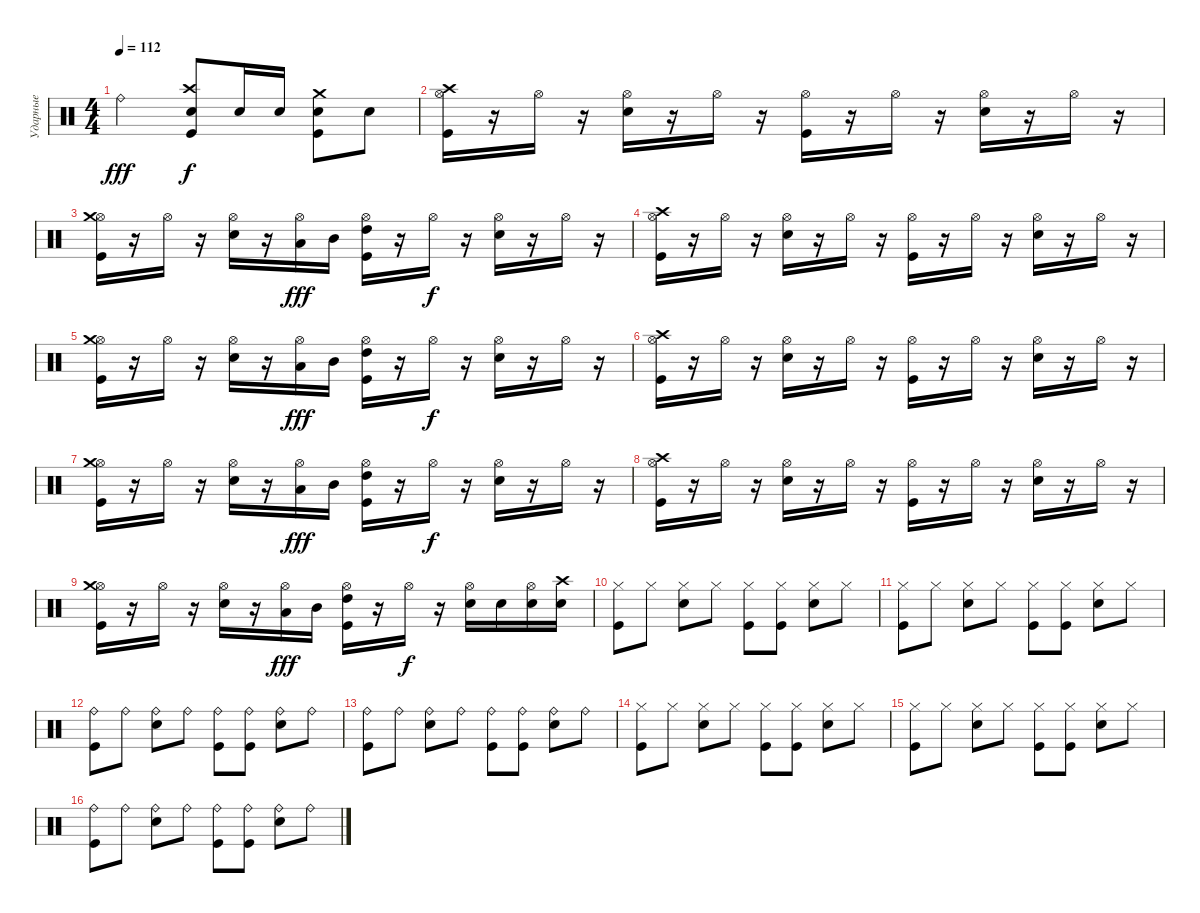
\track ("Ударные" "Ударные") {instrument percussion}
\staff {score}
\articulation defaults
\ts (4 4)
\tempo 112
\clef neutral
\ks c "Ride (bell)".2{dy fff}
("Snare (hit) 2" "Crash high (hit)" "Kick (hit)").8{dy f} "Snare (hit) 2".16 "Snare (hit) 2".16 ("Snare (hit) 2" "Crash medium (hit)" "Kick (hit)").8 "Snare (hit) 2".8 |
("Hi-Hat (open)" "Crash high (hit)" "Kick (hit)").16 r.16 "Hi-Hat (open)".16 r.16 ("Hi-Hat (open)" "Snare (hit) 2").16 r.16 "Hi-Hat (open)".16 r.16 ("Hi-Hat (open)" "Kick (hit)").16 r.16 "Hi-Hat (open)".16 r.16 ("Hi-Hat (open)" "Snare (hit) 2").16 r.16 "Hi-Hat (open)".16 r.16 |
("Hi-Hat (open)" "Crash medium (hit)" "Kick (hit)").16 r.16 "Hi-Hat (open)".16 r.16 ("Hi-Hat (open)" "Snare (hit) 2").16 r.16 ("Hi-Hat (open)" "Low Tom (hit)").16{dy fff} "Mid Tom (hit)".16 ("Hi-Hat (open)" "High Tom (hit)" "Kick (hit)").16 r.16 "Hi-Hat (open)".16{dy f} r.16 ("Hi-Hat (open)" "Snare (hit) 2").16 r.16 "Hi-Hat (open)".16 r.16 |
("Hi-Hat (open)" "Crash high (hit)" "Kick (hit)").16 r.16 "Hi-Hat (open)".16 r.16 ("Hi-Hat (open)" "Snare (hit) 2").16 r.16 "Hi-Hat (open)".16 r.16 ("Hi-Hat (open)" "Kick (hit)").16 r.16 "Hi-Hat (open)".16 r.16 ("Hi-Hat (open)" "Snare (hit) 2").16 r.16 "Hi-Hat (open)".16 r.16 |
("Hi-Hat (open)" "Crash medium (hit)" "Kick (hit)").16 r.16 "Hi-Hat (open)".16 r.16 ("Hi-Hat (open)" "Snare (hit) 2").16 r.16 ("Hi-Hat (open)" "Low Tom (hit)").16{dy fff} "Mid Tom (hit)".16 ("Hi-Hat (open)" "High Tom (hit)" "Kick (hit)").16 r.16 "Hi-Hat (open)".16{dy f} r.16 ("Hi-Hat (open)" "Snare (hit) 2").16 r.16 "Hi-Hat (open)".16 r.16 |
("Hi-Hat (open)" "Crash high (hit)" "Kick (hit)").16 r.16 "Hi-Hat (open)".16 r.16 ("Hi-Hat (open)" "Snare (hit) 2").16 r.16 "Hi-Hat (open)".16 r.16 ("Hi-Hat (open)" "Kick (hit)").16 r.16 "Hi-Hat (open)".16 r.16 ("Hi-Hat (open)" "Snare (hit) 2").16 r.16 "Hi-Hat (open)".16 r.16 |
("Hi-Hat (open)" "Crash medium (hit)" "Kick (hit)").16 r.16 "Hi-Hat (open)".16 r.16 ("Hi-Hat (open)" "Snare (hit) 2").16 r.16 ("Hi-Hat (open)" "Low Tom (hit)").16{dy fff} "Mid Tom (hit)".16 ("Hi-Hat (open)" "High Tom (hit)" "Kick (hit)").16 r.16 "Hi-Hat (open)".16{dy f} r.16 ("Hi-Hat (open)" "Snare (hit) 2").16 r.16 "Hi-Hat (open)".16 r.16 |
("Hi-Hat (open)" "Crash high (hit)" "Kick (hit)").16 r.16 "Hi-Hat (open)".16 r.16 ("Hi-Hat (open)" "Snare (hit) 2").16 r.16 "Hi-Hat (open)".16 r.16 ("Hi-Hat (open)" "Kick (hit)").16 r.16 "Hi-Hat (open)".16 r.16 ("Hi-Hat (open)" "Snare (hit) 2").16 r.16 "Hi-Hat (open)".16 r.16 |
("Hi-Hat (open)" "Crash medium (hit)" "Kick (hit)").16 r.16 "Hi-Hat (open)".16 r.16 ("Hi-Hat (open)" "Snare (hit) 2").16 r.16 ("Hi-Hat (open)" "Low Tom (hit)").16{dy fff} "Mid Tom (hit)".16 ("Hi-Hat (open)" "High Tom (hit)" "Kick (hit)").16 r.16 "Hi-Hat (open)".16{dy f} r.16 ("Hi-Hat (open)" "Snare (hit) 2").16 "Snare (hit) 2".16 ("Hi-Hat (open)" "Snare (hit) 2").16 ("Crash high (hit)" "Snare (hit) 2").16 |
("Hi-Hat (closed)" "Kick (hit)").8 "Hi-Hat (closed)".8 ("Hi-Hat (closed)" "Snare (hit) 2").8 "Hi-Hat (closed)".8 ("Hi-Hat (closed)" "Kick (hit)").8 ("Hi-Hat (closed)" "Kick (hit)").8 ("Hi-Hat (closed)" "Snare (hit) 2").8 "Hi-Hat (closed)".8 |
("Hi-Hat (closed)" "Kick (hit)").8 "Hi-Hat (closed)".8 ("Hi-Hat (closed)" "Snare (hit) 2").8 "Hi-Hat (closed)".8 ("Hi-Hat (closed)" "Kick (hit)").8 ("Hi-Hat (closed)" "Kick (hit)").8 ("Hi-Hat (closed)" "Snare (hit) 2").8 "Hi-Hat (closed)".8 |
("Ride (bell)" "Kick (hit)").8 "Ride (bell)".8 ("Ride (bell)" "Snare (hit) 2").8 "Ride (bell)".8 ("Ride (bell)" "Kick (hit)").8 ("Ride (bell)" "Kick (hit)").8 ("Ride (bell)" "Snare (hit) 2").8 "Ride (bell)".8 |
("Ride (bell)" "Kick (hit)").8 "Ride (bell)".8 ("Ride (bell)" "Snare (hit) 2").8 "Ride (bell)".8 ("Ride (bell)" "Kick (hit)").8 ("Ride (bell)" "Kick (hit)").8 ("Ride (bell)" "Snare (hit) 2").8 "Ride (bell)".8 |
("Hi-Hat (closed)" "Kick (hit)").8 "Hi-Hat (closed)".8 ("Hi-Hat (closed)" "Snare (hit) 2").8 "Hi-Hat (closed)".8 ("Hi-Hat (closed)" "Kick (hit)").8 ("Hi-Hat (closed)" "Kick (hit)").8 ("Hi-Hat (closed)" "Snare (hit) 2").8 "Hi-Hat (closed)".8 |
("Hi-Hat (closed)" "Kick (hit)").8 "Hi-Hat (closed)".8 ("Hi-Hat (closed)" "Snare (hit) 2").8 "Hi-Hat (closed)".8 ("Hi-Hat (closed)" "Kick (hit)").8 ("Hi-Hat (closed)" "Kick (hit)").8 ("Hi-Hat (closed)" "Snare (hit) 2").8 "Hi-Hat (closed)".8 |
("Ride (bell)" "Kick (hit)").8 "Ride (bell)".8 ("Ride (bell)" "Snare (hit) 2").8 "Ride (bell)".8 ("Ride (bell)" "Kick (hit)").8 ("Ride (bell)" "Kick (hit)").8 ("Ride (bell)" "Snare (hit) 2").8 "Ride (bell)".8
